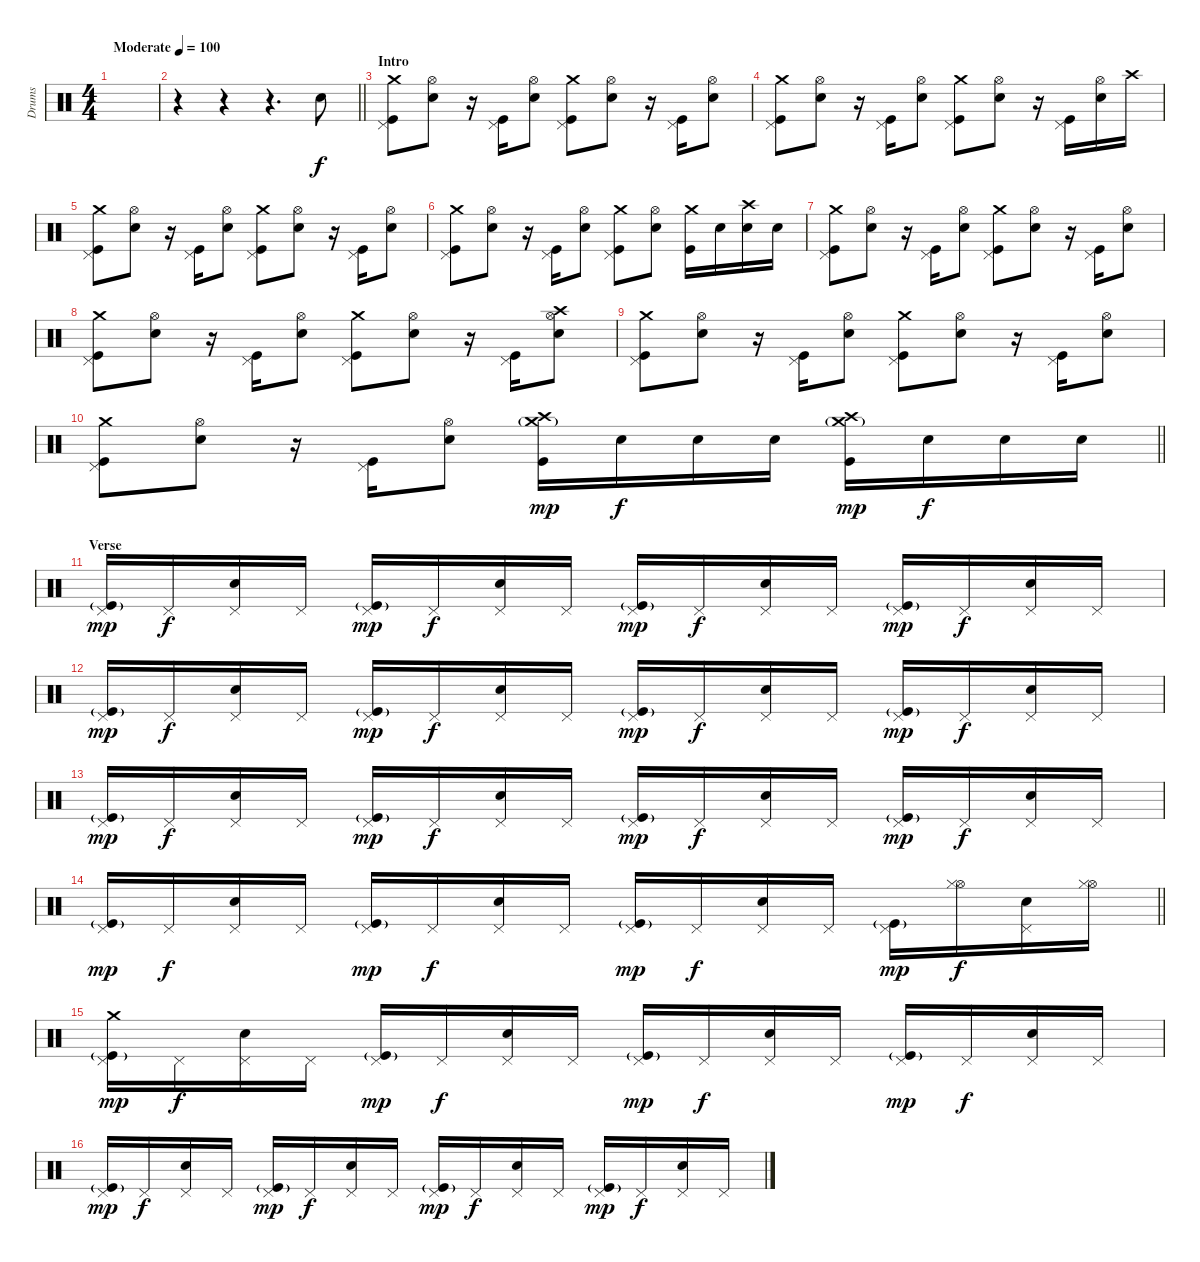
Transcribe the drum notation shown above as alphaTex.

\track ("Drums" "Drums") {instrument percussion}
\staff {score}
\articulation defaults
\ts (4 4)
\tempo (100 "Moderate")
\clef neutral
\ks c
|
\barLineRight lightlight
r.4 r.4 r.4{d} "Electric Snare (hit)".8 |
\section ("" "Intro")
("Crash medium (hit)" "Pedal Hi-Hat (hit)" "Kick (hit)").8 ("Hi-Hat (open)" "Electric Snare (hit)").8 r.16 ("Pedal Hi-Hat (hit)" "Kick (hit)").16 ("Hi-Hat (open)" "Electric Snare (hit)").8 ("Crash medium (hit)" "Pedal Hi-Hat (hit)" "Kick (hit)").8 ("Hi-Hat (open)" "Electric Snare (hit)").8 r.16 ("Pedal Hi-Hat (hit)" "Kick (hit)").16 ("Hi-Hat (open)" "Electric Snare (hit)").8 |
("Crash medium (hit)" "Pedal Hi-Hat (hit)" "Kick (hit)").8 ("Hi-Hat (open)" "Electric Snare (hit)").8 r.16 ("Pedal Hi-Hat (hit)" "Kick (hit)").16 ("Hi-Hat (open)" "Electric Snare (hit)").8 ("Crash medium (hit)" "Pedal Hi-Hat (hit)" "Kick (hit)").8 ("Hi-Hat (open)" "Electric Snare (hit)").8 r.16 ("Pedal Hi-Hat (hit)" "Kick (hit)").16 ("Hi-Hat (open)" "Electric Snare (hit)").16 "Crash high (hit)".16 |
("Crash medium (hit)" "Pedal Hi-Hat (hit)" "Kick (hit)").8 ("Hi-Hat (open)" "Electric Snare (hit)").8 r.16 ("Pedal Hi-Hat (hit)" "Kick (hit)").16 ("Hi-Hat (open)" "Electric Snare (hit)").8 ("Crash medium (hit)" "Pedal Hi-Hat (hit)" "Kick (hit)").8 ("Hi-Hat (open)" "Electric Snare (hit)").8 r.16 ("Pedal Hi-Hat (hit)" "Kick (hit)").16 ("Hi-Hat (open)" "Electric Snare (hit)").8 |
("Crash medium (hit)" "Pedal Hi-Hat (hit)" "Kick (hit)").8 ("Hi-Hat (open)" "Electric Snare (hit)").8 r.16 ("Pedal Hi-Hat (hit)" "Kick (hit)").16 ("Hi-Hat (open)" "Electric Snare (hit)").8 ("Crash medium (hit)" "Pedal Hi-Hat (hit)" "Kick (hit)").8 ("Hi-Hat (open)" "Electric Snare (hit)").8 ("Crash medium (hit)" "Kick (hit)").16 "Electric Snare (hit)".16 ("Crash high (hit)" "Electric Snare (hit)").16 "Electric Snare (hit)".16 |
("Crash medium (hit)" "Pedal Hi-Hat (hit)" "Kick (hit)").8 ("Hi-Hat (open)" "Electric Snare (hit)").8 r.16 ("Pedal Hi-Hat (hit)" "Kick (hit)").16 ("Hi-Hat (open)" "Electric Snare (hit)").8 ("Crash medium (hit)" "Pedal Hi-Hat (hit)" "Kick (hit)").8 ("Hi-Hat (open)" "Electric Snare (hit)").8 r.16 ("Pedal Hi-Hat (hit)" "Kick (hit)").16 ("Hi-Hat (open)" "Electric Snare (hit)").8 |
("Crash medium (hit)" "Pedal Hi-Hat (hit)" "Kick (hit)").8 ("Hi-Hat (open)" "Electric Snare (hit)").8 r.16 ("Pedal Hi-Hat (hit)" "Kick (hit)").16 ("Hi-Hat (open)" "Electric Snare (hit)").8 ("Crash medium (hit)" "Pedal Hi-Hat (hit)" "Kick (hit)").8 ("Hi-Hat (open)" "Electric Snare (hit)").8 r.16 ("Pedal Hi-Hat (hit)" "Kick (hit)").16 ("Crash high (hit)" "Hi-Hat (open)" "Electric Snare (hit)").8 |
("Crash medium (hit)" "Pedal Hi-Hat (hit)" "Kick (hit)").8 ("Hi-Hat (open)" "Electric Snare (hit)").8 r.16 ("Pedal Hi-Hat (hit)" "Kick (hit)").16 ("Hi-Hat (open)" "Electric Snare (hit)").8 ("Crash medium (hit)" "Pedal Hi-Hat (hit)" "Kick (hit)").8 ("Hi-Hat (open)" "Electric Snare (hit)").8 r.16 ("Pedal Hi-Hat (hit)" "Kick (hit)").16 ("Hi-Hat (open)" "Electric Snare (hit)").8 |
\barLineRight lightlight
("Crash medium (hit)" "Pedal Hi-Hat (hit)" "Kick (hit)").8 ("Hi-Hat (open)" "Electric Snare (hit)").8 r.16 ("Pedal Hi-Hat (hit)" "Kick (hit)").16 ("Hi-Hat (open)" "Electric Snare (hit)").8 ("Crash high (hit)" "Crash medium (hit)"{g} "Kick (hit)").16{dy mp} "Electric Snare (hit)".16{dy f} "Electric Snare (hit)".16 "Electric Snare (hit)".16 ("Crash high (hit)" "Crash medium (hit)"{g} "Kick (hit)").16{dy mp} "Electric Snare (hit)".16{dy f} "Electric Snare (hit)".16 "Electric Snare (hit)".16 |
\section ("" "Verse")
("Pedal Hi-Hat (hit)" "Kick (hit)"{g}).16{dy mp} "Pedal Hi-Hat (hit)".16{dy f} ("Pedal Hi-Hat (hit)" "Electric Snare (hit)").16 "Pedal Hi-Hat (hit)".16 ("Pedal Hi-Hat (hit)" "Kick (hit)"{g}).16{dy mp} "Pedal Hi-Hat (hit)".16{dy f} ("Pedal Hi-Hat (hit)" "Electric Snare (hit)").16 "Pedal Hi-Hat (hit)".16 ("Pedal Hi-Hat (hit)" "Kick (hit)"{g}).16{dy mp} "Pedal Hi-Hat (hit)".16{dy f} ("Pedal Hi-Hat (hit)" "Electric Snare (hit)").16 "Pedal Hi-Hat (hit)".16 ("Pedal Hi-Hat (hit)" "Kick (hit)"{g}).16{dy mp} "Pedal Hi-Hat (hit)".16{dy f} ("Pedal Hi-Hat (hit)" "Electric Snare (hit)").16 "Pedal Hi-Hat (hit)".16 |
("Pedal Hi-Hat (hit)" "Kick (hit)"{g}).16{dy mp} "Pedal Hi-Hat (hit)".16{dy f} ("Pedal Hi-Hat (hit)" "Electric Snare (hit)").16 "Pedal Hi-Hat (hit)".16 ("Pedal Hi-Hat (hit)" "Kick (hit)"{g}).16{dy mp} "Pedal Hi-Hat (hit)".16{dy f} ("Pedal Hi-Hat (hit)" "Electric Snare (hit)").16 "Pedal Hi-Hat (hit)".16 ("Pedal Hi-Hat (hit)" "Kick (hit)"{g}).16{dy mp} "Pedal Hi-Hat (hit)".16{dy f} ("Pedal Hi-Hat (hit)" "Electric Snare (hit)").16 "Pedal Hi-Hat (hit)".16 ("Pedal Hi-Hat (hit)" "Kick (hit)"{g}).16{dy mp} "Pedal Hi-Hat (hit)".16{dy f} ("Pedal Hi-Hat (hit)" "Electric Snare (hit)").16 "Pedal Hi-Hat (hit)".16 |
("Pedal Hi-Hat (hit)" "Kick (hit)"{g}).16{dy mp} "Pedal Hi-Hat (hit)".16{dy f} ("Pedal Hi-Hat (hit)" "Electric Snare (hit)").16 "Pedal Hi-Hat (hit)".16 ("Pedal Hi-Hat (hit)" "Kick (hit)"{g}).16{dy mp} "Pedal Hi-Hat (hit)".16{dy f} ("Pedal Hi-Hat (hit)" "Electric Snare (hit)").16 "Pedal Hi-Hat (hit)".16 ("Pedal Hi-Hat (hit)" "Kick (hit)"{g}).16{dy mp} "Pedal Hi-Hat (hit)".16{dy f} ("Pedal Hi-Hat (hit)" "Electric Snare (hit)").16 "Pedal Hi-Hat (hit)".16 ("Pedal Hi-Hat (hit)" "Kick (hit)"{g}).16{dy mp} "Pedal Hi-Hat (hit)".16{dy f} ("Pedal Hi-Hat (hit)" "Electric Snare (hit)").16 "Pedal Hi-Hat (hit)".16 |
\barLineRight lightlight
("Pedal Hi-Hat (hit)" "Kick (hit)"{g}).16{dy mp} "Pedal Hi-Hat (hit)".16{dy f} ("Pedal Hi-Hat (hit)" "Electric Snare (hit)").16 "Pedal Hi-Hat (hit)".16 ("Pedal Hi-Hat (hit)" "Kick (hit)"{g}).16{dy mp} "Pedal Hi-Hat (hit)".16{dy f} ("Pedal Hi-Hat (hit)" "Electric Snare (hit)").16 "Pedal Hi-Hat (hit)".16 ("Pedal Hi-Hat (hit)" "Kick (hit)"{g}).16{dy mp} "Pedal Hi-Hat (hit)".16{dy f} ("Pedal Hi-Hat (hit)" "Electric Snare (hit)").16 "Pedal Hi-Hat (hit)".16 ("Pedal Hi-Hat (hit)" "Kick (hit)"{g}).16{dy mp} ("Hi-Hat (open)" "Hi-Hat (closed)").16{dy f} ("Pedal Hi-Hat (hit)" "Electric Snare (hit)").16 ("Hi-Hat (open)" "Hi-Hat (closed)").16 |
("Pedal Hi-Hat (hit)" "Crash medium (hit)" "Kick (hit)"{g}).16{dy mp} "Pedal Hi-Hat (hit)".16{dy f} ("Pedal Hi-Hat (hit)" "Electric Snare (hit)").16 "Pedal Hi-Hat (hit)".16 ("Pedal Hi-Hat (hit)" "Kick (hit)"{g}).16{dy mp} "Pedal Hi-Hat (hit)".16{dy f} ("Pedal Hi-Hat (hit)" "Electric Snare (hit)").16 "Pedal Hi-Hat (hit)".16 ("Pedal Hi-Hat (hit)" "Kick (hit)"{g}).16{dy mp} "Pedal Hi-Hat (hit)".16{dy f} ("Pedal Hi-Hat (hit)" "Electric Snare (hit)").16 "Pedal Hi-Hat (hit)".16 ("Pedal Hi-Hat (hit)" "Kick (hit)"{g}).16{dy mp} "Pedal Hi-Hat (hit)".16{dy f} ("Pedal Hi-Hat (hit)" "Electric Snare (hit)").16 "Pedal Hi-Hat (hit)".16 |
("Pedal Hi-Hat (hit)" "Kick (hit)"{g}).16{dy mp} "Pedal Hi-Hat (hit)".16{dy f} ("Pedal Hi-Hat (hit)" "Electric Snare (hit)").16 "Pedal Hi-Hat (hit)".16 ("Pedal Hi-Hat (hit)" "Kick (hit)"{g}).16{dy mp} "Pedal Hi-Hat (hit)".16{dy f} ("Pedal Hi-Hat (hit)" "Electric Snare (hit)").16 "Pedal Hi-Hat (hit)".16 ("Pedal Hi-Hat (hit)" "Kick (hit)"{g}).16{dy mp} "Pedal Hi-Hat (hit)".16{dy f} ("Pedal Hi-Hat (hit)" "Electric Snare (hit)").16 "Pedal Hi-Hat (hit)".16 ("Pedal Hi-Hat (hit)" "Kick (hit)"{g}).16{dy mp} "Pedal Hi-Hat (hit)".16{dy f} ("Pedal Hi-Hat (hit)" "Electric Snare (hit)").16 "Pedal Hi-Hat (hit)".16
